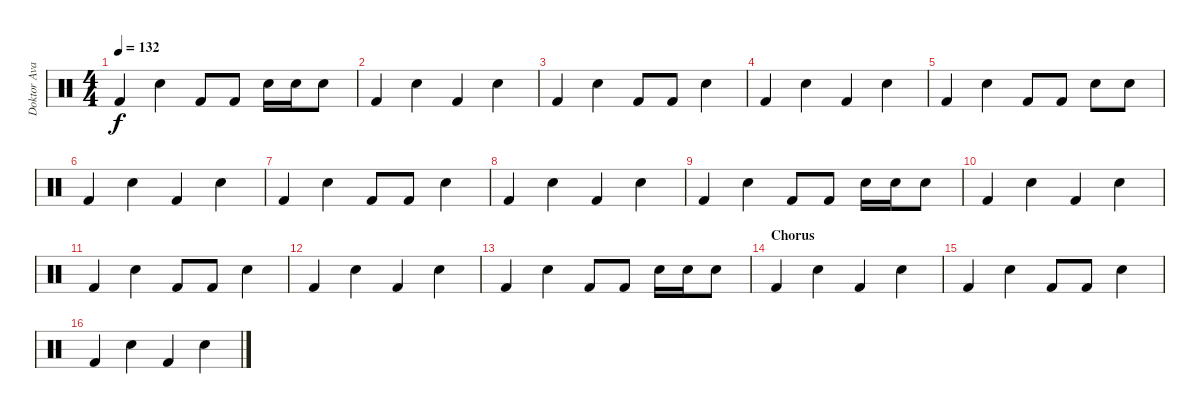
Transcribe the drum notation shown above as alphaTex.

\track ("Doktor Avalanche" "Doktor Ava") {instrument percussion}
\staff {score}
\articulation defaults
\ts (4 4)
\tempo 132
\clef neutral
\ks c "Kick (hit) 2".4{dy f} "Electric Snare (hit)".4 "Kick (hit) 2".8 "Kick (hit) 2".8 "Electric Snare (hit)".16 "Electric Snare (hit)".16 "Electric Snare (hit)".8
|
"Kick (hit) 2".4 "Electric Snare (hit)".4 "Kick (hit) 2".4 "Electric Snare (hit)".4 |
"Kick (hit) 2".4 "Electric Snare (hit)".4 "Kick (hit) 2".8 "Kick (hit) 2".8 "Electric Snare (hit)".4 |
"Kick (hit) 2".4 "Electric Snare (hit)".4 "Kick (hit) 2".4 "Electric Snare (hit)".4 |
"Kick (hit) 2".4 "Electric Snare (hit)".4 "Kick (hit) 2".8 "Kick (hit) 2".8 "Electric Snare (hit)".8 "Electric Snare (hit)".8 |
"Kick (hit) 2".4 "Electric Snare (hit)".4 "Kick (hit) 2".4 "Electric Snare (hit)".4 |
"Kick (hit) 2".4 "Electric Snare (hit)".4 "Kick (hit) 2".8 "Kick (hit) 2".8 "Electric Snare (hit)".4 |
"Kick (hit) 2".4 "Electric Snare (hit)".4 "Kick (hit) 2".4 "Electric Snare (hit)".4 |
"Kick (hit) 2".4 "Electric Snare (hit)".4 "Kick (hit) 2".8 "Kick (hit) 2".8 "Electric Snare (hit)".16 "Electric Snare (hit)".16 "Electric Snare (hit)".8 |
"Kick (hit) 2".4 "Electric Snare (hit)".4 "Kick (hit) 2".4 "Electric Snare (hit)".4 |
"Kick (hit) 2".4 "Electric Snare (hit)".4 "Kick (hit) 2".8 "Kick (hit) 2".8 "Electric Snare (hit)".4 |
"Kick (hit) 2".4 "Electric Snare (hit)".4 "Kick (hit) 2".4 "Electric Snare (hit)".4 |
"Kick (hit) 2".4 "Electric Snare (hit)".4 "Kick (hit) 2".8 "Kick (hit) 2".8 "Electric Snare (hit)".16 "Electric Snare (hit)".16 "Electric Snare (hit)".8 |
\section ("" "Chorus")
"Kick (hit) 2".4 "Electric Snare (hit)".4 "Kick (hit) 2".4 "Electric Snare (hit)".4 |
"Kick (hit) 2".4 "Electric Snare (hit)".4 "Kick (hit) 2".8 "Kick (hit) 2".8 "Electric Snare (hit)".4 |
"Kick (hit) 2".4 "Electric Snare (hit)".4 "Kick (hit) 2".4 "Electric Snare (hit)".4
